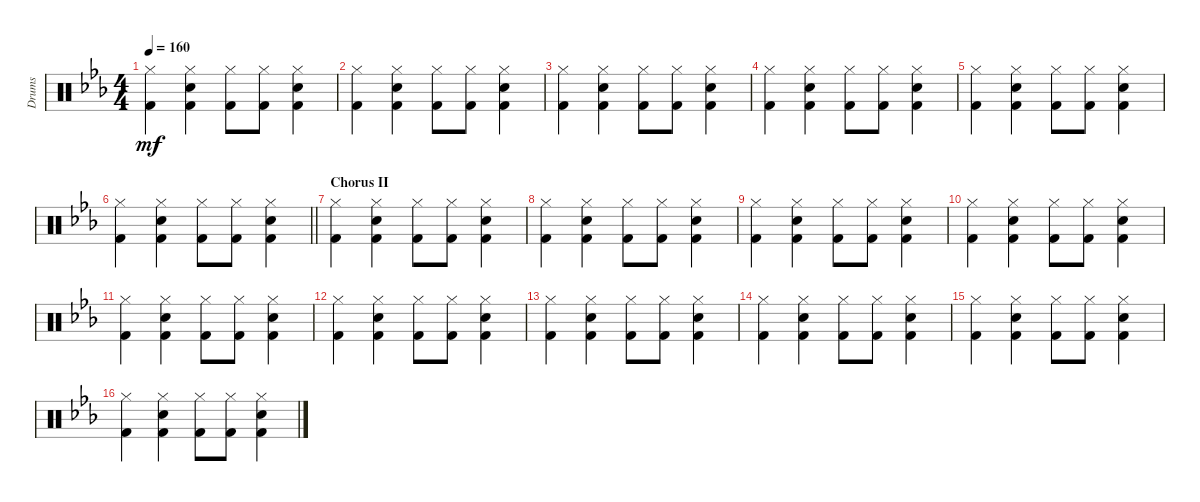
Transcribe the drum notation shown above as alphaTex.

\track ("Drums" "Drums") {instrument percussion}
\staff {score}
\articulation defaults
\ts (4 4)
\tempo 160
\clef neutral
\ks eb
("Hi-Hat (closed)" "Kick (hit) 2").4{dy mf} ("Hi-Hat (closed)" "Electric Snare (hit)" "Kick (hit) 2").4 ("Hi-Hat (closed)" "Kick (hit) 2").8 ("Hi-Hat (closed)" "Kick (hit) 2").8 ("Hi-Hat (closed)" "Electric Snare (hit)" "Kick (hit) 2").4 |
("Hi-Hat (closed)" "Kick (hit) 2").4 ("Hi-Hat (closed)" "Electric Snare (hit)" "Kick (hit) 2").4 ("Hi-Hat (closed)" "Kick (hit) 2").8 ("Hi-Hat (closed)" "Kick (hit) 2").8 ("Hi-Hat (closed)" "Electric Snare (hit)" "Kick (hit) 2").4 |
("Hi-Hat (closed)" "Kick (hit) 2").4 ("Hi-Hat (closed)" "Electric Snare (hit)" "Kick (hit) 2").4 ("Hi-Hat (closed)" "Kick (hit) 2").8 ("Hi-Hat (closed)" "Kick (hit) 2").8 ("Hi-Hat (closed)" "Electric Snare (hit)" "Kick (hit) 2").4 |
("Hi-Hat (closed)" "Kick (hit) 2").4 ("Hi-Hat (closed)" "Electric Snare (hit)" "Kick (hit) 2").4 ("Hi-Hat (closed)" "Kick (hit) 2").8 ("Hi-Hat (closed)" "Kick (hit) 2").8 ("Hi-Hat (closed)" "Electric Snare (hit)" "Kick (hit) 2").4 |
("Hi-Hat (closed)" "Kick (hit) 2").4 ("Hi-Hat (closed)" "Electric Snare (hit)" "Kick (hit) 2").4 ("Hi-Hat (closed)" "Kick (hit) 2").8 ("Hi-Hat (closed)" "Kick (hit) 2").8 ("Hi-Hat (closed)" "Electric Snare (hit)" "Kick (hit) 2").4 |
\barLineRight lightlight
("Hi-Hat (closed)" "Kick (hit) 2").4 ("Hi-Hat (closed)" "Electric Snare (hit)" "Kick (hit) 2").4 ("Hi-Hat (closed)" "Kick (hit) 2").8 ("Hi-Hat (closed)" "Kick (hit) 2").8 ("Hi-Hat (closed)" "Electric Snare (hit)" "Kick (hit) 2").4 |
\section ("" "Chorus II")
("Hi-Hat (closed)" "Kick (hit) 2").4 ("Hi-Hat (closed)" "Electric Snare (hit)" "Kick (hit) 2").4 ("Hi-Hat (closed)" "Kick (hit) 2").8 ("Hi-Hat (closed)" "Kick (hit) 2").8 ("Hi-Hat (closed)" "Electric Snare (hit)" "Kick (hit) 2").4 |
("Hi-Hat (closed)" "Kick (hit) 2").4 ("Hi-Hat (closed)" "Electric Snare (hit)" "Kick (hit) 2").4 ("Hi-Hat (closed)" "Kick (hit) 2").8 ("Hi-Hat (closed)" "Kick (hit) 2").8 ("Hi-Hat (closed)" "Electric Snare (hit)" "Kick (hit) 2").4 |
("Hi-Hat (closed)" "Kick (hit) 2").4 ("Hi-Hat (closed)" "Electric Snare (hit)" "Kick (hit) 2").4 ("Hi-Hat (closed)" "Kick (hit) 2").8 ("Hi-Hat (closed)" "Kick (hit) 2").8 ("Hi-Hat (closed)" "Electric Snare (hit)" "Kick (hit) 2").4 |
("Hi-Hat (closed)" "Kick (hit) 2").4 ("Hi-Hat (closed)" "Electric Snare (hit)" "Kick (hit) 2").4 ("Hi-Hat (closed)" "Kick (hit) 2").8 ("Hi-Hat (closed)" "Kick (hit) 2").8 ("Hi-Hat (closed)" "Electric Snare (hit)" "Kick (hit) 2").4 |
("Hi-Hat (closed)" "Kick (hit) 2").4 ("Hi-Hat (closed)" "Electric Snare (hit)" "Kick (hit) 2").4 ("Hi-Hat (closed)" "Kick (hit) 2").8 ("Hi-Hat (closed)" "Kick (hit) 2").8 ("Hi-Hat (closed)" "Electric Snare (hit)" "Kick (hit) 2").4 |
("Hi-Hat (closed)" "Kick (hit) 2").4 ("Hi-Hat (closed)" "Electric Snare (hit)" "Kick (hit) 2").4 ("Hi-Hat (closed)" "Kick (hit) 2").8 ("Hi-Hat (closed)" "Kick (hit) 2").8 ("Hi-Hat (closed)" "Electric Snare (hit)" "Kick (hit) 2").4 |
("Hi-Hat (closed)" "Kick (hit) 2").4 ("Hi-Hat (closed)" "Electric Snare (hit)" "Kick (hit) 2").4 ("Hi-Hat (closed)" "Kick (hit) 2").8 ("Hi-Hat (closed)" "Kick (hit) 2").8 ("Hi-Hat (closed)" "Electric Snare (hit)" "Kick (hit) 2").4 |
("Hi-Hat (closed)" "Kick (hit) 2").4 ("Hi-Hat (closed)" "Electric Snare (hit)" "Kick (hit) 2").4 ("Hi-Hat (closed)" "Kick (hit) 2").8 ("Hi-Hat (closed)" "Kick (hit) 2").8 ("Hi-Hat (closed)" "Electric Snare (hit)" "Kick (hit) 2").4 |
("Hi-Hat (closed)" "Kick (hit) 2").4 ("Hi-Hat (closed)" "Electric Snare (hit)" "Kick (hit) 2").4 ("Hi-Hat (closed)" "Kick (hit) 2").8 ("Hi-Hat (closed)" "Kick (hit) 2").8 ("Hi-Hat (closed)" "Electric Snare (hit)" "Kick (hit) 2").4 |
("Hi-Hat (closed)" "Kick (hit) 2").4 ("Hi-Hat (closed)" "Electric Snare (hit)" "Kick (hit) 2").4 ("Hi-Hat (closed)" "Kick (hit) 2").8 ("Hi-Hat (closed)" "Kick (hit) 2").8 ("Hi-Hat (closed)" "Electric Snare (hit)" "Kick (hit) 2").4
